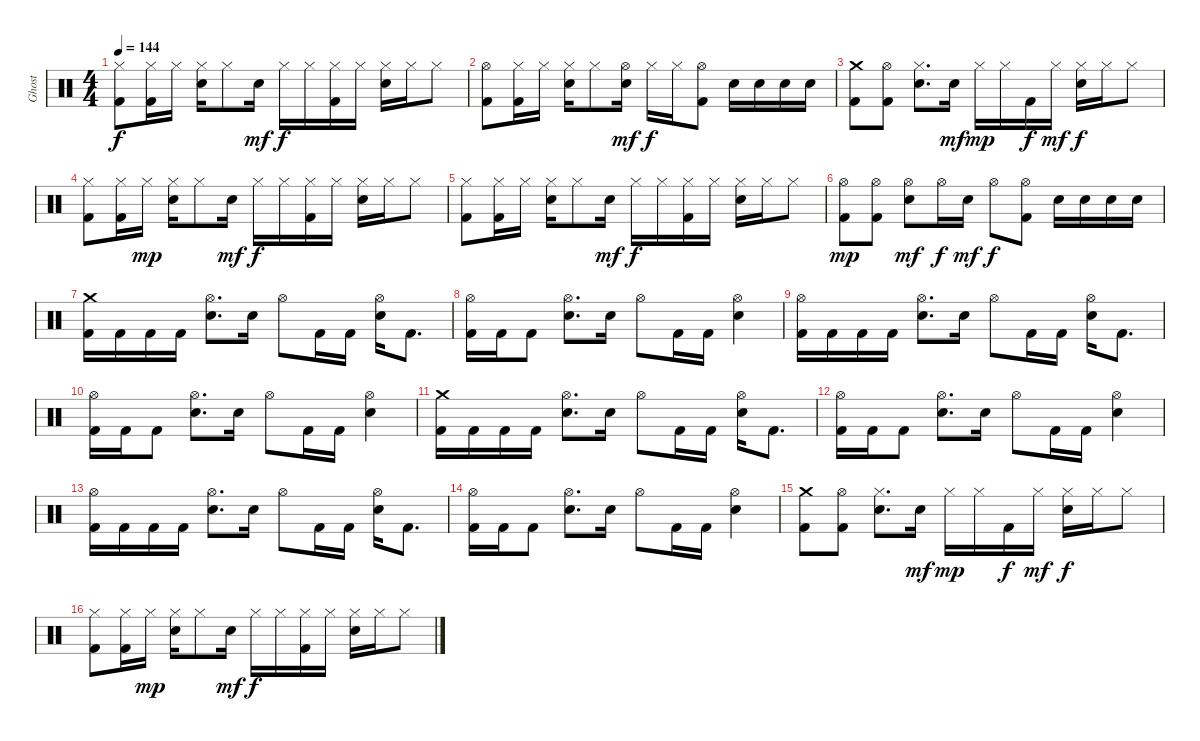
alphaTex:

\track ("Ghost" "Ghost") {instrument percussion}
\staff {score}
\articulation defaults
\ts (4 4)
\tempo 144
\clef neutral
\ks c
("Hi-Hat (closed)" "Kick (hit) 2").8{dy f} ("Hi-Hat (closed)" "Kick (hit) 2").16 "Hi-Hat (closed)".16 ("Hi-Hat (closed)" "Electric Snare (hit)").16 "Hi-Hat (closed)".8 "Electric Snare (hit)".16{dy mf} "Hi-Hat (closed)".16{dy f} "Hi-Hat (closed)".16 ("Hi-Hat (closed)" "Kick (hit) 2").16 "Hi-Hat (closed)".16 ("Hi-Hat (closed)" "Electric Snare (hit)").16 "Hi-Hat (closed)".16 "Hi-Hat (closed)".8 |
("Hi-Hat (open)" "Kick (hit) 2").8 ("Hi-Hat (closed)" "Kick (hit) 2").16 "Hi-Hat (closed)".16 ("Hi-Hat (closed)" "Electric Snare (hit)").16 "Hi-Hat (closed)".8 ("Hi-Hat (open)" "Electric Snare (hit)").16{dy mf} "Hi-Hat (closed)".16{dy f} "Hi-Hat (closed)".16 ("Hi-Hat (open)" "Kick (hit) 2").8 "Electric Snare (hit)".16 "Electric Snare (hit)".16 "Electric Snare (hit)".16 "Electric Snare (hit)".16 |
("Crash medium (hit)" "Kick (hit) 2").8 ("Hi-Hat (open)" "Kick (hit) 2").8 ("Hi-Hat (closed)" "Electric Snare (hit)").8{d} "Electric Snare (hit)".16{dy mf} "Hi-Hat (closed)".16{dy mp} "Hi-Hat (closed)".16 "Kick (hit) 2".16{dy f} "Hi-Hat (closed)".16{dy mf} ("Hi-Hat (closed)" "Electric Snare (hit)").16{dy f} "Hi-Hat (closed)".16 "Hi-Hat (closed)".8 |
("Hi-Hat (closed)" "Kick (hit) 2").8 ("Hi-Hat (closed)" "Kick (hit) 2").16 "Hi-Hat (closed)".16{dy mp} ("Hi-Hat (closed)" "Electric Snare (hit)").16 "Hi-Hat (closed)".8 "Electric Snare (hit)".16{dy mf} "Hi-Hat (closed)".16{dy f} "Hi-Hat (closed)".16 ("Hi-Hat (closed)" "Kick (hit) 2").16 "Hi-Hat (closed)".16 ("Hi-Hat (closed)" "Electric Snare (hit)").16 "Hi-Hat (closed)".16 "Hi-Hat (closed)".8 |
("Hi-Hat (closed)" "Kick (hit) 2").8 ("Hi-Hat (closed)" "Kick (hit) 2").16 "Hi-Hat (closed)".16 ("Hi-Hat (closed)" "Electric Snare (hit)").16 "Hi-Hat (closed)".8 "Electric Snare (hit)".16{dy mf} "Hi-Hat (closed)".16{dy f} "Hi-Hat (closed)".16 ("Hi-Hat (closed)" "Kick (hit) 2").16 "Hi-Hat (closed)".16 ("Hi-Hat (closed)" "Electric Snare (hit)").16 "Hi-Hat (closed)".16 "Hi-Hat (closed)".8 |
("Hi-Hat (open)" "Kick (hit) 2").8{dy mp} ("Hi-Hat (open)" "Kick (hit) 2").8 ("Hi-Hat (open)" "Electric Snare (hit)").8{dy mf} "Hi-Hat (open)".16{dy f} "Electric Snare (hit)".16{dy mf} "Hi-Hat (open)".8{dy f} ("Hi-Hat (open)" "Kick (hit) 2").8 "Electric Snare (hit)".16 "Electric Snare (hit)".16 "Electric Snare (hit)".16 "Electric Snare (hit)".16 |
("Crash medium (hit)" "Kick (hit) 2").16 "Kick (hit) 2".16 "Kick (hit) 2".16 "Kick (hit) 2".16 ("Hi-Hat (open)" "Electric Snare (hit)").8{d} "Electric Snare (hit)".16 "Hi-Hat (open)".8 "Kick (hit) 2".16 "Kick (hit) 2".16 ("Hi-Hat (open)" "Electric Snare (hit)").16 "Kick (hit) 2".8{d} |
("Hi-Hat (open)" "Kick (hit) 2").16 "Kick (hit) 2".16 "Kick (hit) 2".8 ("Hi-Hat (open)" "Electric Snare (hit)").8{d} "Electric Snare (hit)".16 "Hi-Hat (open)".8 "Kick (hit) 2".16 "Kick (hit) 2".16 ("Hi-Hat (open)" "Electric Snare (hit)").4 |
("Hi-Hat (open)" "Kick (hit) 2").16 "Kick (hit) 2".16 "Kick (hit) 2".16 "Kick (hit) 2".16 ("Hi-Hat (open)" "Electric Snare (hit)").8{d} "Electric Snare (hit)".16 "Hi-Hat (open)".8 "Kick (hit) 2".16 "Kick (hit) 2".16 ("Hi-Hat (open)" "Electric Snare (hit)").16 "Kick (hit) 2".8{d} |
("Hi-Hat (open)" "Kick (hit) 2").16 "Kick (hit) 2".16 "Kick (hit) 2".8 ("Hi-Hat (open)" "Electric Snare (hit)").8{d} "Electric Snare (hit)".16 "Hi-Hat (open)".8 "Kick (hit) 2".16 "Kick (hit) 2".16 ("Hi-Hat (open)" "Electric Snare (hit)").4 |
("Crash medium (hit)" "Kick (hit) 2").16 "Kick (hit) 2".16 "Kick (hit) 2".16 "Kick (hit) 2".16 ("Hi-Hat (open)" "Electric Snare (hit)").8{d} "Electric Snare (hit)".16 "Hi-Hat (open)".8 "Kick (hit) 2".16 "Kick (hit) 2".16 ("Hi-Hat (open)" "Electric Snare (hit)").16 "Kick (hit) 2".8{d} |
("Hi-Hat (open)" "Kick (hit) 2").16 "Kick (hit) 2".16 "Kick (hit) 2".8 ("Hi-Hat (open)" "Electric Snare (hit)").8{d} "Electric Snare (hit)".16 "Hi-Hat (open)".8 "Kick (hit) 2".16 "Kick (hit) 2".16 ("Hi-Hat (open)" "Electric Snare (hit)").4 |
("Hi-Hat (open)" "Kick (hit) 2").16 "Kick (hit) 2".16 "Kick (hit) 2".16 "Kick (hit) 2".16 ("Hi-Hat (open)" "Electric Snare (hit)").8{d} "Electric Snare (hit)".16 "Hi-Hat (open)".8 "Kick (hit) 2".16 "Kick (hit) 2".16 ("Hi-Hat (open)" "Electric Snare (hit)").16 "Kick (hit) 2".8{d} |
("Hi-Hat (open)" "Kick (hit) 2").16 "Kick (hit) 2".16 "Kick (hit) 2".8 ("Hi-Hat (open)" "Electric Snare (hit)").8{d} "Electric Snare (hit)".16 "Hi-Hat (open)".8 "Kick (hit) 2".16 "Kick (hit) 2".16 ("Hi-Hat (open)" "Electric Snare (hit)").4 |
("Crash medium (hit)" "Kick (hit) 2").8 ("Hi-Hat (open)" "Kick (hit) 2").8 ("Hi-Hat (closed)" "Electric Snare (hit)").8{d} "Electric Snare (hit)".16{dy mf} "Hi-Hat (closed)".16{dy mp} "Hi-Hat (closed)".16 "Kick (hit) 2".16{dy f} "Hi-Hat (closed)".16{dy mf} ("Hi-Hat (closed)" "Electric Snare (hit)").16{dy f} "Hi-Hat (closed)".16 "Hi-Hat (closed)".8 |
("Hi-Hat (closed)" "Kick (hit) 2").8 ("Hi-Hat (closed)" "Kick (hit) 2").16 "Hi-Hat (closed)".16{dy mp} ("Hi-Hat (closed)" "Electric Snare (hit)").16 "Hi-Hat (closed)".8 "Electric Snare (hit)".16{dy mf} "Hi-Hat (closed)".16{dy f} "Hi-Hat (closed)".16 ("Hi-Hat (closed)" "Kick (hit) 2").16 "Hi-Hat (closed)".16 ("Hi-Hat (closed)" "Electric Snare (hit)").16 "Hi-Hat (closed)".16 "Hi-Hat (closed)".8
